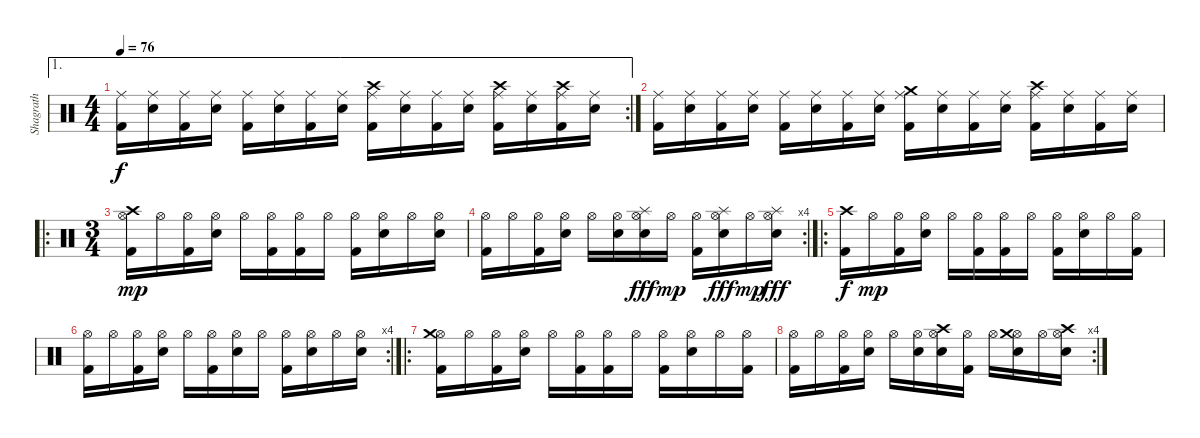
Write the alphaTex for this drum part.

\track ("Shagrath" "Shagrath") {instrument percussion}
\staff {score}
\articulation defaults
\ae 1
\rc 2
\ts (4 4)
\tempo 76
\clef neutral
\ks c
("Ride (middle)" "Kick (hit) 2").16{dy f} ("Ride (middle)" "Snare (hit) 2").16 ("Ride (middle)" "Kick (hit) 2").16 ("Ride (middle)" "Snare (hit) 2").16 ("Ride (middle)" "Kick (hit) 2").16 ("Ride (middle)" "Snare (hit) 2").16 ("Ride (middle)" "Kick (hit) 2").16 ("Ride (middle)" "Snare (hit) 2").16 ("Ride (middle)" "Kick (hit) 2" "Crash high (hit)").16 ("Ride (middle)" "Snare (hit) 2").16 ("Ride (middle)" "Kick (hit) 2").16 ("Ride (middle)" "Snare (hit) 2").16 ("Ride (middle)" "Kick (hit) 2" "Crash high (hit)").16 ("Ride (middle)" "Snare (hit) 2").16 ("Ride (middle)" "Kick (hit) 2" "Crash high (hit)").16 ("Ride (middle)" "Snare (hit) 2").16 |
("Ride (middle)" "Kick (hit) 2").16 ("Ride (middle)" "Snare (hit) 2").16 ("Ride (middle)" "Kick (hit) 2").16 ("Ride (middle)" "Snare (hit) 2").16 ("Ride (middle)" "Kick (hit) 2").16 ("Ride (middle)" "Snare (hit) 2").16 ("Ride (middle)" "Kick (hit) 2").16 ("Ride (middle)" "Snare (hit) 2").16 ("Ride (middle)" "Kick (hit) 2" "Crash medium (hit)").16 ("Ride (middle)" "Snare (hit) 2").16 ("Ride (middle)" "Kick (hit) 2").16 ("Ride (middle)" "Snare (hit) 2").16 ("Ride (middle)" "Kick (hit) 2" "Crash high (hit)").16 ("Ride (middle)" "Snare (hit) 2").16 ("Ride (middle)" "Kick (hit) 2").16 ("Ride (middle)" "Snare (hit) 2").16 |
\ro
\ts (3 4)
("Hi-Hat (open)" "Crash high (hit)" "Kick (hit) 2").16{dy mp} "Hi-Hat (open)".16 ("Hi-Hat (open)" "Kick (hit) 2").16 ("Hi-Hat (open)" "Snare (hit) 2").16 "Hi-Hat (open)".16 ("Hi-Hat (open)" "Kick (hit) 2").16 ("Hi-Hat (open)" "Kick (hit) 2").16 "Hi-Hat (open)".16 ("Hi-Hat (open)" "Kick (hit) 2").16 ("Hi-Hat (open)" "Snare (hit) 2").16 "Hi-Hat (open)".16 ("Hi-Hat (open)" "Snare (hit) 2").16 |
\rc 4
("Hi-Hat (open)" "Kick (hit) 2").16 "Hi-Hat (open)".16 ("Hi-Hat (open)" "Kick (hit) 2").16 ("Hi-Hat (open)" "Snare (hit) 2").16 "Hi-Hat (open)".16 ("Hi-Hat (open)" "Snare (hit) 2").16 ("Hi-Hat (open)" "Splash (hit)" "Snare (hit) 2").16{dy fff} "Hi-Hat (open)".16{dy mp} ("Hi-Hat (open)" "Kick (hit) 2").16 ("Hi-Hat (open)" "Splash (hit)" "Snare (hit) 2").16{dy fff} "Hi-Hat (open)".16{dy mp} ("Hi-Hat (open)" "Splash (hit)" "Snare (hit) 2").16{dy fff} |
\ro
("Crash high (hit)" "Kick (hit) 2").16{dy f} "Hi-Hat (open)".16{dy mp} ("Hi-Hat (open)" "Kick (hit) 2").16 ("Hi-Hat (open)" "Snare (hit) 2").16 "Hi-Hat (open)".16 ("Hi-Hat (open)" "Kick (hit) 2").16 ("Hi-Hat (open)" "Kick (hit) 2").16 "Hi-Hat (open)".16 ("Hi-Hat (open)" "Kick (hit) 2").16 ("Hi-Hat (open)" "Snare (hit) 2").16 "Hi-Hat (open)".16 ("Hi-Hat (open)" "Kick (hit) 2").16 |
\rc 4
("Hi-Hat (open)" "Kick (hit) 2").16 "Hi-Hat (open)".16 ("Hi-Hat (open)" "Kick (hit) 2").16 ("Hi-Hat (open)" "Snare (hit) 2").16 "Hi-Hat (open)".16 ("Hi-Hat (open)" "Kick (hit) 2").16 ("Hi-Hat (open)" "Snare (hit) 2").16 "Hi-Hat (open)".16 ("Hi-Hat (open)" "Kick (hit) 2").16 ("Hi-Hat (open)" "Snare (hit) 2").16 "Hi-Hat (open)".16 ("Hi-Hat (open)" "Snare (hit) 2").16 |
\ro
("Hi-Hat (open)" "Crash medium (hit)" "Kick (hit) 2").16 "Hi-Hat (open)".16 ("Hi-Hat (open)" "Kick (hit) 2").16 ("Hi-Hat (open)" "Snare (hit) 2").16 "Hi-Hat (open)".16 ("Hi-Hat (open)" "Kick (hit) 2").16 ("Hi-Hat (open)" "Kick (hit) 2").16 "Hi-Hat (open)".16 ("Hi-Hat (open)" "Kick (hit) 2").16 ("Hi-Hat (open)" "Snare (hit) 2").16 "Hi-Hat (open)".16 ("Hi-Hat (open)" "Kick (hit) 2").16 |
\rc 4
("Hi-Hat (open)" "Kick (hit) 2").16 "Hi-Hat (open)".16 ("Hi-Hat (open)" "Kick (hit) 2").16 ("Hi-Hat (open)" "Snare (hit) 2").16 "Hi-Hat (open)".16 ("Hi-Hat (open)" "Snare (hit) 2").16 ("Hi-Hat (open)" "Crash high (hit)" "Snare (hit) 2").16 ("Hi-Hat (open)" "Kick (hit) 2").16 "Hi-Hat (open)".16 ("Hi-Hat (open)" "Crash medium (hit)" "Snare (hit) 2").16 "Hi-Hat (open)".16 ("Hi-Hat (open)" "Crash high (hit)" "Snare (hit) 2").16
